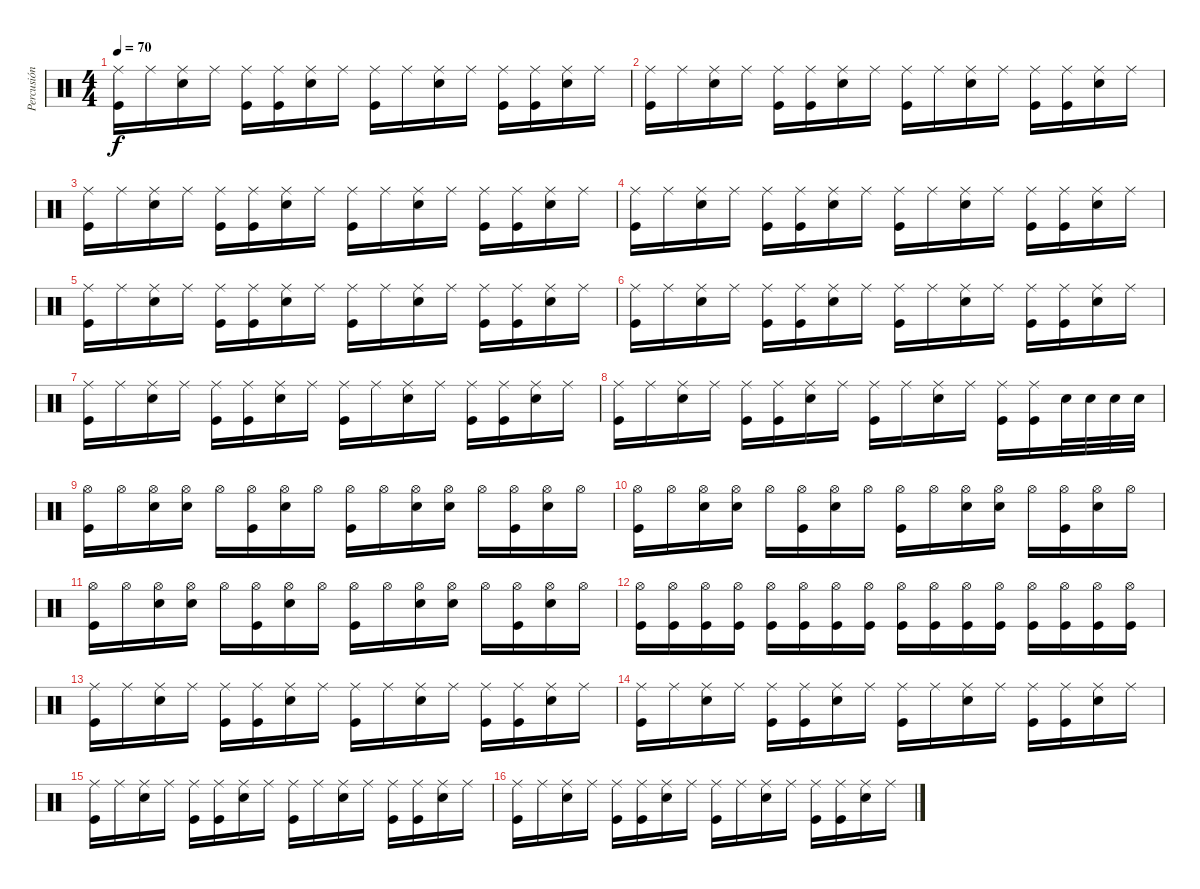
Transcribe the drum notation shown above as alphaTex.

\track ("Percusión" "Percusión") {instrument percussion}
\staff {score}
\articulation defaults
\ts (4 4)
\tempo 70
\clef neutral
\ks c
("Ride (middle)" "Kick (hit)").16{dy f} "Ride (middle)".16 ("Ride (middle)" "Snare (hit) 2").16 "Ride (middle)".16 ("Ride (middle)" "Kick (hit)").16 ("Ride (middle)" "Kick (hit)").16 ("Ride (middle)" "Snare (hit) 2").16 "Ride (middle)".16 ("Ride (middle)" "Kick (hit)").16 "Ride (middle)".16 ("Ride (middle)" "Snare (hit) 2").16 "Ride (middle)".16 ("Ride (middle)" "Kick (hit)").16 ("Ride (middle)" "Kick (hit)").16 ("Ride (middle)" "Snare (hit) 2").16 "Ride (middle)".16 |
("Ride (middle)" "Kick (hit)").16 "Ride (middle)".16 ("Ride (middle)" "Snare (hit) 2").16 "Ride (middle)".16 ("Ride (middle)" "Kick (hit)").16 ("Ride (middle)" "Kick (hit)").16 ("Ride (middle)" "Snare (hit) 2").16 "Ride (middle)".16 ("Ride (middle)" "Kick (hit)").16 "Ride (middle)".16 ("Ride (middle)" "Snare (hit) 2").16 "Ride (middle)".16 ("Ride (middle)" "Kick (hit)").16 ("Ride (middle)" "Kick (hit)").16 ("Ride (middle)" "Snare (hit) 2").16 "Ride (middle)".16 |
("Ride (middle)" "Kick (hit)").16 "Ride (middle)".16 ("Ride (middle)" "Snare (hit) 2").16 "Ride (middle)".16 ("Ride (middle)" "Kick (hit)").16 ("Ride (middle)" "Kick (hit)").16 ("Ride (middle)" "Snare (hit) 2").16 "Ride (middle)".16 ("Ride (middle)" "Kick (hit)").16 "Ride (middle)".16 ("Ride (middle)" "Snare (hit) 2").16 "Ride (middle)".16 ("Ride (middle)" "Kick (hit)").16 ("Ride (middle)" "Kick (hit)").16 ("Ride (middle)" "Snare (hit) 2").16 "Ride (middle)".16 |
("Ride (middle)" "Kick (hit)").16 "Ride (middle)".16 ("Ride (middle)" "Snare (hit) 2").16 "Ride (middle)".16 ("Ride (middle)" "Kick (hit)").16 ("Ride (middle)" "Kick (hit)").16 ("Ride (middle)" "Snare (hit) 2").16 "Ride (middle)".16 ("Ride (middle)" "Kick (hit)").16 "Ride (middle)".16 ("Ride (middle)" "Snare (hit) 2").16 "Ride (middle)".16 ("Ride (middle)" "Kick (hit)").16 ("Ride (middle)" "Kick (hit)").16 ("Ride (middle)" "Snare (hit) 2").16 "Ride (middle)".16 |
("Ride (middle)" "Kick (hit)").16 "Ride (middle)".16 ("Ride (middle)" "Snare (hit) 2").16 "Ride (middle)".16 ("Ride (middle)" "Kick (hit)").16 ("Ride (middle)" "Kick (hit)").16 ("Ride (middle)" "Snare (hit) 2").16 "Ride (middle)".16 ("Ride (middle)" "Kick (hit)").16 "Ride (middle)".16 ("Ride (middle)" "Snare (hit) 2").16 "Ride (middle)".16 ("Ride (middle)" "Kick (hit)").16 ("Ride (middle)" "Kick (hit)").16 ("Ride (middle)" "Snare (hit) 2").16 "Ride (middle)".16 |
("Ride (middle)" "Kick (hit)").16 "Ride (middle)".16 ("Ride (middle)" "Snare (hit) 2").16 "Ride (middle)".16 ("Ride (middle)" "Kick (hit)").16 ("Ride (middle)" "Kick (hit)").16 ("Ride (middle)" "Snare (hit) 2").16 "Ride (middle)".16 ("Ride (middle)" "Kick (hit)").16 "Ride (middle)".16 ("Ride (middle)" "Snare (hit) 2").16 "Ride (middle)".16 ("Ride (middle)" "Kick (hit)").16 ("Ride (middle)" "Kick (hit)").16 ("Ride (middle)" "Snare (hit) 2").16 "Ride (middle)".16 |
("Ride (middle)" "Kick (hit)").16 "Ride (middle)".16 ("Ride (middle)" "Snare (hit) 2").16 "Ride (middle)".16 ("Ride (middle)" "Kick (hit)").16 ("Ride (middle)" "Kick (hit)").16 ("Ride (middle)" "Snare (hit) 2").16 "Ride (middle)".16 ("Ride (middle)" "Kick (hit)").16 "Ride (middle)".16 ("Ride (middle)" "Snare (hit) 2").16 "Ride (middle)".16 ("Ride (middle)" "Kick (hit)").16 ("Ride (middle)" "Kick (hit)").16 ("Ride (middle)" "Snare (hit) 2").16 "Ride (middle)".16 |
("Ride (middle)" "Kick (hit)").16 "Ride (middle)".16 ("Ride (middle)" "Snare (hit) 2").16 "Ride (middle)".16 ("Ride (middle)" "Kick (hit)").16 ("Ride (middle)" "Kick (hit)").16 ("Ride (middle)" "Snare (hit) 2").16 "Ride (middle)".16 ("Ride (middle)" "Kick (hit)").16 "Ride (middle)".16 ("Ride (middle)" "Snare (hit) 2").16 "Ride (middle)".16 ("Ride (middle)" "Kick (hit)").16 ("Ride (middle)" "Kick (hit)").16 "Snare (hit) 2".32 "Snare (hit) 2".32 "Snare (hit) 2".32 "Snare (hit) 2".32 |
("Hi-Hat (open)" "Kick (hit)").16 "Hi-Hat (open)".16 ("Hi-Hat (open)" "Snare (hit) 2").16 ("Hi-Hat (open)" "Snare (hit) 2").16 "Hi-Hat (open)".16 ("Hi-Hat (open)" "Kick (hit)").16 ("Hi-Hat (open)" "Snare (hit) 2").16 "Hi-Hat (open)".16 ("Hi-Hat (open)" "Kick (hit)").16 "Hi-Hat (open)".16 ("Hi-Hat (open)" "Snare (hit) 2").16 ("Hi-Hat (open)" "Snare (hit) 2").16 "Hi-Hat (open)".16 ("Hi-Hat (open)" "Kick (hit)").16 ("Hi-Hat (open)" "Snare (hit) 2").16 "Hi-Hat (open)".16 |
("Hi-Hat (open)" "Kick (hit)").16 "Hi-Hat (open)".16 ("Hi-Hat (open)" "Snare (hit) 2").16 ("Hi-Hat (open)" "Snare (hit) 2").16 "Hi-Hat (open)".16 ("Hi-Hat (open)" "Kick (hit)").16 ("Hi-Hat (open)" "Snare (hit) 2").16 "Hi-Hat (open)".16 ("Hi-Hat (open)" "Kick (hit)").16 "Hi-Hat (open)".16 ("Hi-Hat (open)" "Snare (hit) 2").16 ("Hi-Hat (open)" "Snare (hit) 2").16 "Hi-Hat (open)".16 ("Hi-Hat (open)" "Kick (hit)").16 ("Hi-Hat (open)" "Snare (hit) 2").16 "Hi-Hat (open)".16 |
("Hi-Hat (open)" "Kick (hit)").16 "Hi-Hat (open)".16 ("Hi-Hat (open)" "Snare (hit) 2").16 ("Hi-Hat (open)" "Snare (hit) 2").16 "Hi-Hat (open)".16 ("Hi-Hat (open)" "Kick (hit)").16 ("Hi-Hat (open)" "Snare (hit) 2").16 "Hi-Hat (open)".16 ("Hi-Hat (open)" "Kick (hit)").16 "Hi-Hat (open)".16 ("Hi-Hat (open)" "Snare (hit) 2").16 ("Hi-Hat (open)" "Snare (hit) 2").16 "Hi-Hat (open)".16 ("Hi-Hat (open)" "Kick (hit)").16 ("Hi-Hat (open)" "Snare (hit) 2").16 "Hi-Hat (open)".16 |
("Hi-Hat (open)" "Kick (hit)").16 ("Hi-Hat (open)" "Kick (hit)").16 ("Hi-Hat (open)" "Kick (hit)").16 ("Hi-Hat (open)" "Kick (hit)").16 ("Hi-Hat (open)" "Kick (hit)").16 ("Hi-Hat (open)" "Kick (hit)").16 ("Hi-Hat (open)" "Kick (hit)").16 ("Hi-Hat (open)" "Kick (hit)").16 ("Hi-Hat (open)" "Kick (hit)").16 ("Hi-Hat (open)" "Kick (hit)").16 ("Hi-Hat (open)" "Kick (hit)").16 ("Hi-Hat (open)" "Kick (hit)").16 ("Hi-Hat (open)" "Kick (hit)").16 ("Hi-Hat (open)" "Kick (hit)").16 ("Hi-Hat (open)" "Kick (hit)").16 ("Hi-Hat (open)" "Kick (hit)").16 |
("Ride (middle)" "Kick (hit)").16 "Ride (middle)".16 ("Ride (middle)" "Snare (hit) 2").16 "Ride (middle)".16 ("Ride (middle)" "Kick (hit)").16 ("Ride (middle)" "Kick (hit)").16 ("Ride (middle)" "Snare (hit) 2").16 "Ride (middle)".16 ("Ride (middle)" "Kick (hit)").16 "Ride (middle)".16 ("Ride (middle)" "Snare (hit) 2").16 "Ride (middle)".16 ("Ride (middle)" "Kick (hit)").16 ("Ride (middle)" "Kick (hit)").16 ("Ride (middle)" "Snare (hit) 2").16 "Ride (middle)".16 |
("Ride (middle)" "Kick (hit)").16 "Ride (middle)".16 ("Ride (middle)" "Snare (hit) 2").16 "Ride (middle)".16 ("Ride (middle)" "Kick (hit)").16 ("Ride (middle)" "Kick (hit)").16 ("Ride (middle)" "Snare (hit) 2").16 "Ride (middle)".16 ("Ride (middle)" "Kick (hit)").16 "Ride (middle)".16 ("Ride (middle)" "Snare (hit) 2").16 "Ride (middle)".16 ("Ride (middle)" "Kick (hit)").16 ("Ride (middle)" "Kick (hit)").16 ("Ride (middle)" "Snare (hit) 2").16 "Ride (middle)".16 |
("Ride (middle)" "Kick (hit)").16 "Ride (middle)".16 ("Ride (middle)" "Snare (hit) 2").16 "Ride (middle)".16 ("Ride (middle)" "Kick (hit)").16 ("Ride (middle)" "Kick (hit)").16 ("Ride (middle)" "Snare (hit) 2").16 "Ride (middle)".16 ("Ride (middle)" "Kick (hit)").16 "Ride (middle)".16 ("Ride (middle)" "Snare (hit) 2").16 "Ride (middle)".16 ("Ride (middle)" "Kick (hit)").16 ("Ride (middle)" "Kick (hit)").16 ("Ride (middle)" "Snare (hit) 2").16 "Ride (middle)".16 |
("Ride (middle)" "Kick (hit)").16 "Ride (middle)".16 ("Ride (middle)" "Snare (hit) 2").16 "Ride (middle)".16 ("Ride (middle)" "Kick (hit)").16 ("Ride (middle)" "Kick (hit)").16 ("Ride (middle)" "Snare (hit) 2").16 "Ride (middle)".16 ("Ride (middle)" "Kick (hit)").16 "Ride (middle)".16 ("Ride (middle)" "Snare (hit) 2").16 "Ride (middle)".16 ("Ride (middle)" "Kick (hit)").16 ("Ride (middle)" "Kick (hit)").16 ("Ride (middle)" "Snare (hit) 2").16 "Ride (middle)".16
